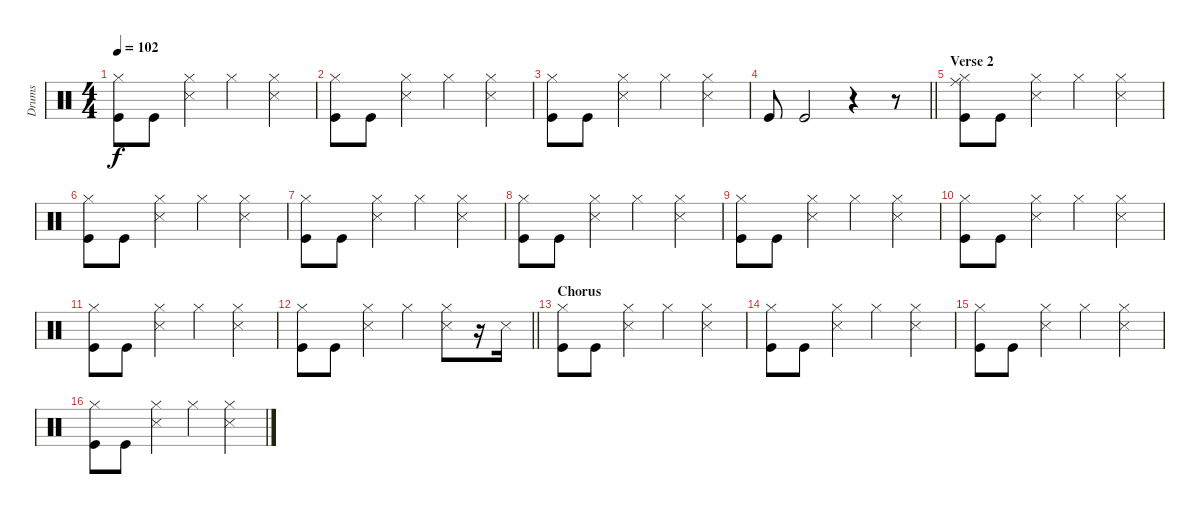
\track ("Drums" "Drums") {instrument percussion}
\staff {score}
\articulation defaults
\ts (4 4)
\tempo 102
\clef neutral
\ks c
("Hi-Hat (closed)" "Kick (hit)").8{dy f} "Kick (hit)".8 ("Hi-Hat (closed)" "Snare (side stick) 3").4 "Hi-Hat (closed)".4 ("Hi-Hat (closed)" "Snare (side stick) 3").4 |
("Hi-Hat (closed)" "Kick (hit)").8 "Kick (hit)".8 ("Hi-Hat (closed)" "Snare (side stick) 3").4 "Hi-Hat (closed)".4 ("Hi-Hat (closed)" "Snare (side stick) 3").4 |
("Hi-Hat (closed)" "Kick (hit)").8 "Kick (hit)".8 ("Hi-Hat (closed)" "Snare (side stick) 3").4 "Hi-Hat (closed)".4 ("Hi-Hat (closed)" "Snare (side stick) 3").4 |
\barLineRight lightlight "Kick (hit)".8 "Kick (hit)".2
r.4 r.8 |
\section ("" "Verse 2")
("Ride (middle)" "Hi-Hat (closed)" "Kick (hit)").8 "Kick (hit)".8 ("Hi-Hat (closed)" "Snare (side stick) 3").4 "Hi-Hat (closed)".4 ("Hi-Hat (closed)" "Snare (side stick) 3").4 |
("Hi-Hat (closed)" "Kick (hit)").8 "Kick (hit)".8 ("Hi-Hat (closed)" "Snare (side stick) 3").4 "Hi-Hat (closed)".4 ("Hi-Hat (closed)" "Snare (side stick) 3").4 |
("Hi-Hat (closed)" "Kick (hit)").8 "Kick (hit)".8 ("Hi-Hat (closed)" "Snare (side stick) 3").4 "Hi-Hat (closed)".4 ("Hi-Hat (closed)" "Snare (side stick) 3").4 |
("Hi-Hat (closed)" "Kick (hit)").8 "Kick (hit)".8 ("Hi-Hat (closed)" "Snare (side stick) 3").4 "Hi-Hat (closed)".4 ("Hi-Hat (closed)" "Snare (side stick) 3").4 |
("Hi-Hat (closed)" "Kick (hit)").8 "Kick (hit)".8 ("Hi-Hat (closed)" "Snare (side stick) 3").4 "Hi-Hat (closed)".4 ("Hi-Hat (closed)" "Snare (side stick) 3").4 |
("Hi-Hat (closed)" "Kick (hit)").8 "Kick (hit)".8 ("Hi-Hat (closed)" "Snare (side stick) 3").4 "Hi-Hat (closed)".4 ("Hi-Hat (closed)" "Snare (side stick) 3").4 |
("Hi-Hat (closed)" "Kick (hit)").8 "Kick (hit)".8 ("Hi-Hat (closed)" "Snare (side stick) 3").4 "Hi-Hat (closed)".4 ("Hi-Hat (closed)" "Snare (side stick) 3").4 |
\barLineRight lightlight
("Hi-Hat (closed)" "Kick (hit)").8 "Kick (hit)".8 ("Hi-Hat (closed)" "Snare (side stick) 3").4 "Hi-Hat (closed)".4 ("Hi-Hat (closed)" "Snare (side stick) 3").8 r.16 "Snare (side stick) 3".16 |
\section ("" "Chorus")
("Hi-Hat (closed)" "Kick (hit)").8 "Kick (hit)".8 ("Hi-Hat (closed)" "Snare (side stick) 3").4 "Hi-Hat (closed)".4 ("Hi-Hat (closed)" "Snare (side stick) 3").4 |
("Hi-Hat (closed)" "Kick (hit)").8 "Kick (hit)".8 ("Hi-Hat (closed)" "Snare (side stick) 3").4 "Hi-Hat (closed)".4 ("Hi-Hat (closed)" "Snare (side stick) 3").4 |
("Hi-Hat (closed)" "Kick (hit)").8 "Kick (hit)".8 ("Hi-Hat (closed)" "Snare (side stick) 3").4 "Hi-Hat (closed)".4 ("Hi-Hat (closed)" "Snare (side stick) 3").4 |
("Hi-Hat (closed)" "Kick (hit)").8 "Kick (hit)".8 ("Hi-Hat (closed)" "Snare (side stick) 3").4 "Hi-Hat (closed)".4 ("Hi-Hat (closed)" "Snare (side stick) 3").4
